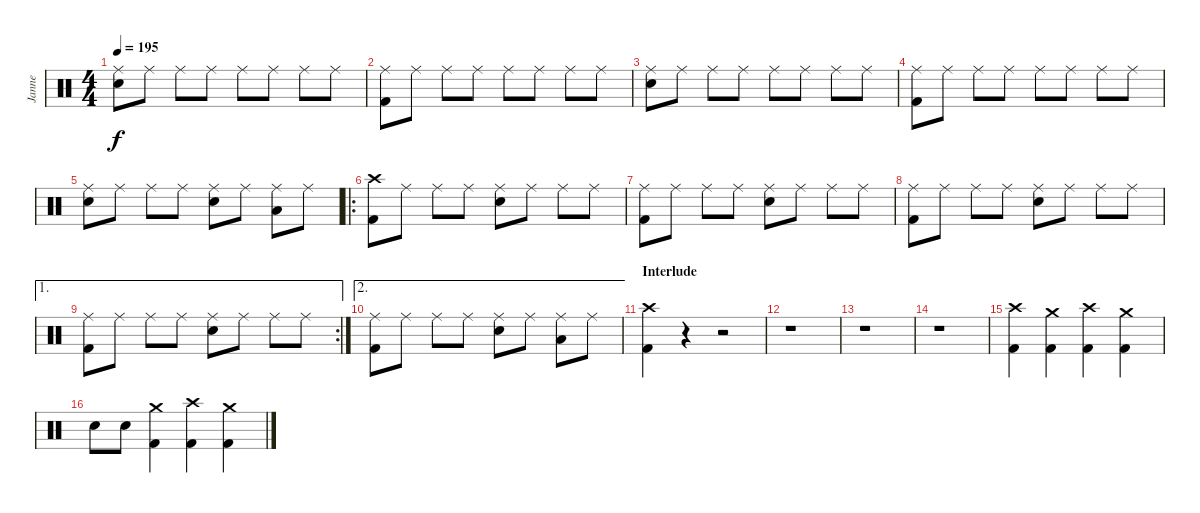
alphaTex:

\track ("Janne" "Janne") {instrument percussion}
\staff {score}
\articulation defaults
\ts (4 4)
\tempo 195
\clef neutral
\ks c
("Ride (middle)" "Electric Snare (hit)").8{dy f} "Ride (middle)".8 "Ride (middle)".8 "Ride (middle)".8 "Ride (middle)".8 "Ride (middle)".8 "Ride (middle)".8 "Ride (middle)".8 |
("Ride (middle)" "Kick (hit) 2").8 "Ride (middle)".8 "Ride (middle)".8 "Ride (middle)".8 "Ride (middle)".8 "Ride (middle)".8 "Ride (middle)".8 "Ride (middle)".8 |
("Ride (middle)" "Electric Snare (hit)").8 "Ride (middle)".8 "Ride (middle)".8 "Ride (middle)".8 "Ride (middle)".8 "Ride (middle)".8 "Ride (middle)".8 "Ride (middle)".8 |
("Ride (middle)" "Kick (hit) 2").8 "Ride (middle)".8 "Ride (middle)".8 "Ride (middle)".8 "Ride (middle)".8 "Ride (middle)".8 "Ride (middle)".8 "Ride (middle)".8 |
("Ride (middle)" "Electric Snare (hit)").8 "Ride (middle)".8 "Ride (middle)".8 "Ride (middle)".8 ("Ride (middle)" "Electric Snare (hit)").8 "Ride (middle)".8 ("Ride (middle)" "Low Tom (hit)").8 "Ride (middle)".8 |
\ro
("Crash high (hit)" "Kick (hit) 2").8 "Ride (middle)".8 "Ride (middle)".8 "Ride (middle)".8 ("Ride (middle)" "Electric Snare (hit)").8 "Ride (middle)".8 "Ride (middle)".8 "Ride (middle)".8 |
("Ride (middle)" "Kick (hit) 2").8 "Ride (middle)".8 "Ride (middle)".8 "Ride (middle)".8 ("Ride (middle)" "Electric Snare (hit)").8 "Ride (middle)".8 "Ride (middle)".8 "Ride (middle)".8 |
("Ride (middle)" "Kick (hit) 2").8 "Ride (middle)".8 "Ride (middle)".8 "Ride (middle)".8 ("Ride (middle)" "Electric Snare (hit)").8 "Ride (middle)".8 "Ride (middle)".8 "Ride (middle)".8 |
\ae 1
\rc 2
("Ride (middle)" "Kick (hit) 2").8 "Ride (middle)".8 "Ride (middle)".8 "Ride (middle)".8 ("Ride (middle)" "Electric Snare (hit)").8 "Ride (middle)".8 "Ride (middle)".8 "Ride (middle)".8 |
\ae 2
("Ride (middle)" "Kick (hit) 2").8 "Ride (middle)".8 "Ride (middle)".8 "Ride (middle)".8 ("Ride (middle)" "Electric Snare (hit)").8 "Ride (middle)".8 ("Ride (middle)" "Low Tom (hit)").8 "Ride (middle)".8 |
\section ("" "Interlude")
("Crash high (hit)" "Kick (hit) 2").4 r.4 r.2 |
r.1 |
r.1 |
r.1 |
("Crash high (hit)" "Kick (hit) 2").4 ("Crash medium (hit)" "Kick (hit) 2").4 ("Crash high (hit)" "Kick (hit) 2").4 ("Crash medium (hit)" "Kick (hit) 2").4 |
"Electric Snare (hit)".8 "Electric Snare (hit)".8 ("Crash medium (hit)" "Kick (hit) 2").4 ("Crash high (hit)" "Kick (hit) 2").4 ("Crash medium (hit)" "Kick (hit) 2").4
